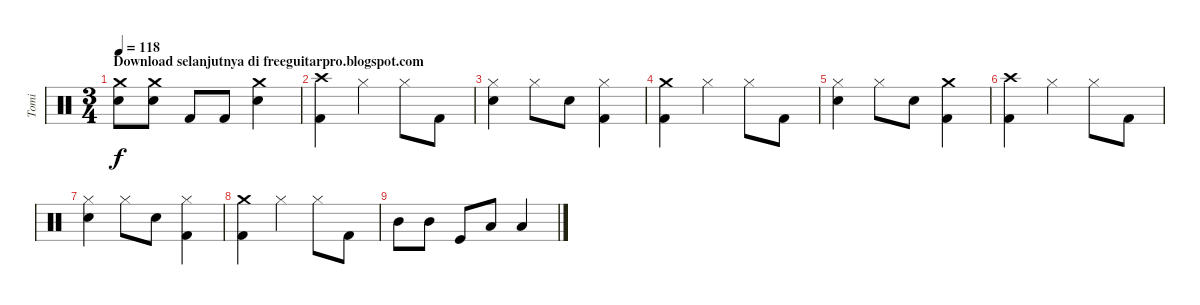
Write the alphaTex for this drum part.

\track ("Tomi" "Tomi") {instrument percussion}
\staff {score}
\articulation defaults
\ts (3 4)
\section ("" "Download selanjutnya di freeguitarpro.blogspot.com")
\tempo 118
\clef neutral
\ks c
("Crash medium (hit)" "Electric Snare (hit)").8{dy f} ("Crash medium (hit)" "Electric Snare (hit)").8 "Kick (hit) 2".8 "Kick (hit) 2".8 ("Crash medium (hit)" "Electric Snare (hit)").4 |
("Crash high (hit)" "Kick (hit) 2").4 "Hi-Hat (closed)".4 "Hi-Hat (closed)".8 "Kick (hit) 2".8 |
("Hi-Hat (closed)" "Electric Snare (hit)").4 "Hi-Hat (closed)".8 "Electric Snare (hit)".8 ("Hi-Hat (closed)" "Kick (hit) 2").4 |
("Crash medium (hit)" "Kick (hit) 2").4 "Hi-Hat (closed)".4 "Hi-Hat (closed)".8 "Kick (hit) 2".8 |
("Hi-Hat (closed)" "Electric Snare (hit)").4 "Hi-Hat (closed)".8 "Electric Snare (hit)".8 ("Crash medium (hit)" "Kick (hit) 2").4 |
("Crash high (hit)" "Kick (hit) 2").4 "Hi-Hat (closed)".4 "Hi-Hat (closed)".8 "Kick (hit) 2".8 |
("Hi-Hat (closed)" "Electric Snare (hit)").4 "Hi-Hat (closed)".8 "Electric Snare (hit)".8 ("Hi-Hat (closed)" "Kick (hit) 2").4 |
("Crash medium (hit)" "Kick (hit) 2").4 "Hi-Hat (closed)".4 "Hi-Hat (closed)".8 "Kick (hit) 2".8 |
"Mid Tom (hit)".8 "Mid Tom (hit)".8 "Kick (hit)".8 "Low Tom (hit)".8 "Low Tom (hit)".4
